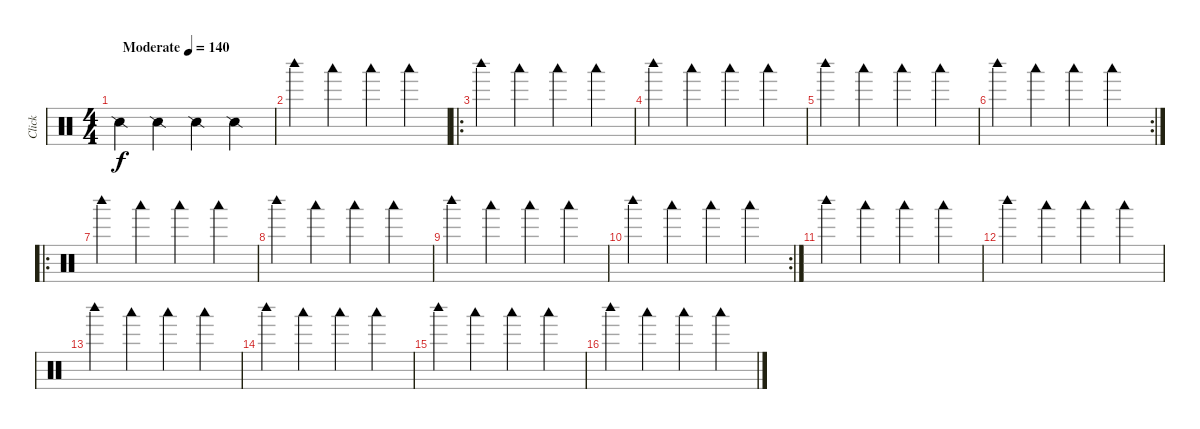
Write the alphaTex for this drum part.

\track ("Click" "Click") {mute instrument percussion}
\staff {score}
\articulation defaults
\ts (4 4)
\tempo (140 "Moderate")
\clef neutral
\ks c "Snare (side stick) 2".4{dy f} "Snare (side stick) 2".4 "Snare (side stick) 2".4 "Snare (side stick) 2".4
|
"Woodblock high (hit)".4 "Woodblock low (hit)".4 "Woodblock low (hit)".4 "Woodblock low (hit)".4 |
\ro "Woodblock high (hit)".4 "Woodblock low (hit)".4 "Woodblock low (hit)".4 "Woodblock low (hit)".4
|
"Woodblock high (hit)".4 "Woodblock low (hit)".4 "Woodblock low (hit)".4 "Woodblock low (hit)".4 |
"Woodblock high (hit)".4 "Woodblock low (hit)".4 "Woodblock low (hit)".4 "Woodblock low (hit)".4 |
\rc 2 "Woodblock high (hit)".4 "Woodblock low (hit)".4 "Woodblock low (hit)".4 "Woodblock low (hit)".4
|
\ro "Woodblock high (hit)".4 "Woodblock low (hit)".4 "Woodblock low (hit)".4 "Woodblock low (hit)".4
|
"Woodblock high (hit)".4 "Woodblock low (hit)".4 "Woodblock low (hit)".4 "Woodblock low (hit)".4 |
"Woodblock high (hit)".4 "Woodblock low (hit)".4 "Woodblock low (hit)".4 "Woodblock low (hit)".4 |
\rc 2 "Woodblock high (hit)".4 "Woodblock low (hit)".4 "Woodblock low (hit)".4 "Woodblock low (hit)".4
|
"Woodblock high (hit)".4 "Woodblock low (hit)".4 "Woodblock low (hit)".4 "Woodblock low (hit)".4 |
"Woodblock high (hit)".4 "Woodblock low (hit)".4 "Woodblock low (hit)".4 "Woodblock low (hit)".4 |
"Woodblock high (hit)".4 "Woodblock low (hit)".4 "Woodblock low (hit)".4 "Woodblock low (hit)".4 |
"Woodblock high (hit)".4 "Woodblock low (hit)".4 "Woodblock low (hit)".4 "Woodblock low (hit)".4 |
"Woodblock high (hit)".4 "Woodblock low (hit)".4 "Woodblock low (hit)".4 "Woodblock low (hit)".4 |
"Woodblock high (hit)".4 "Woodblock low (hit)".4 "Woodblock low (hit)".4 "Woodblock low (hit)".4
